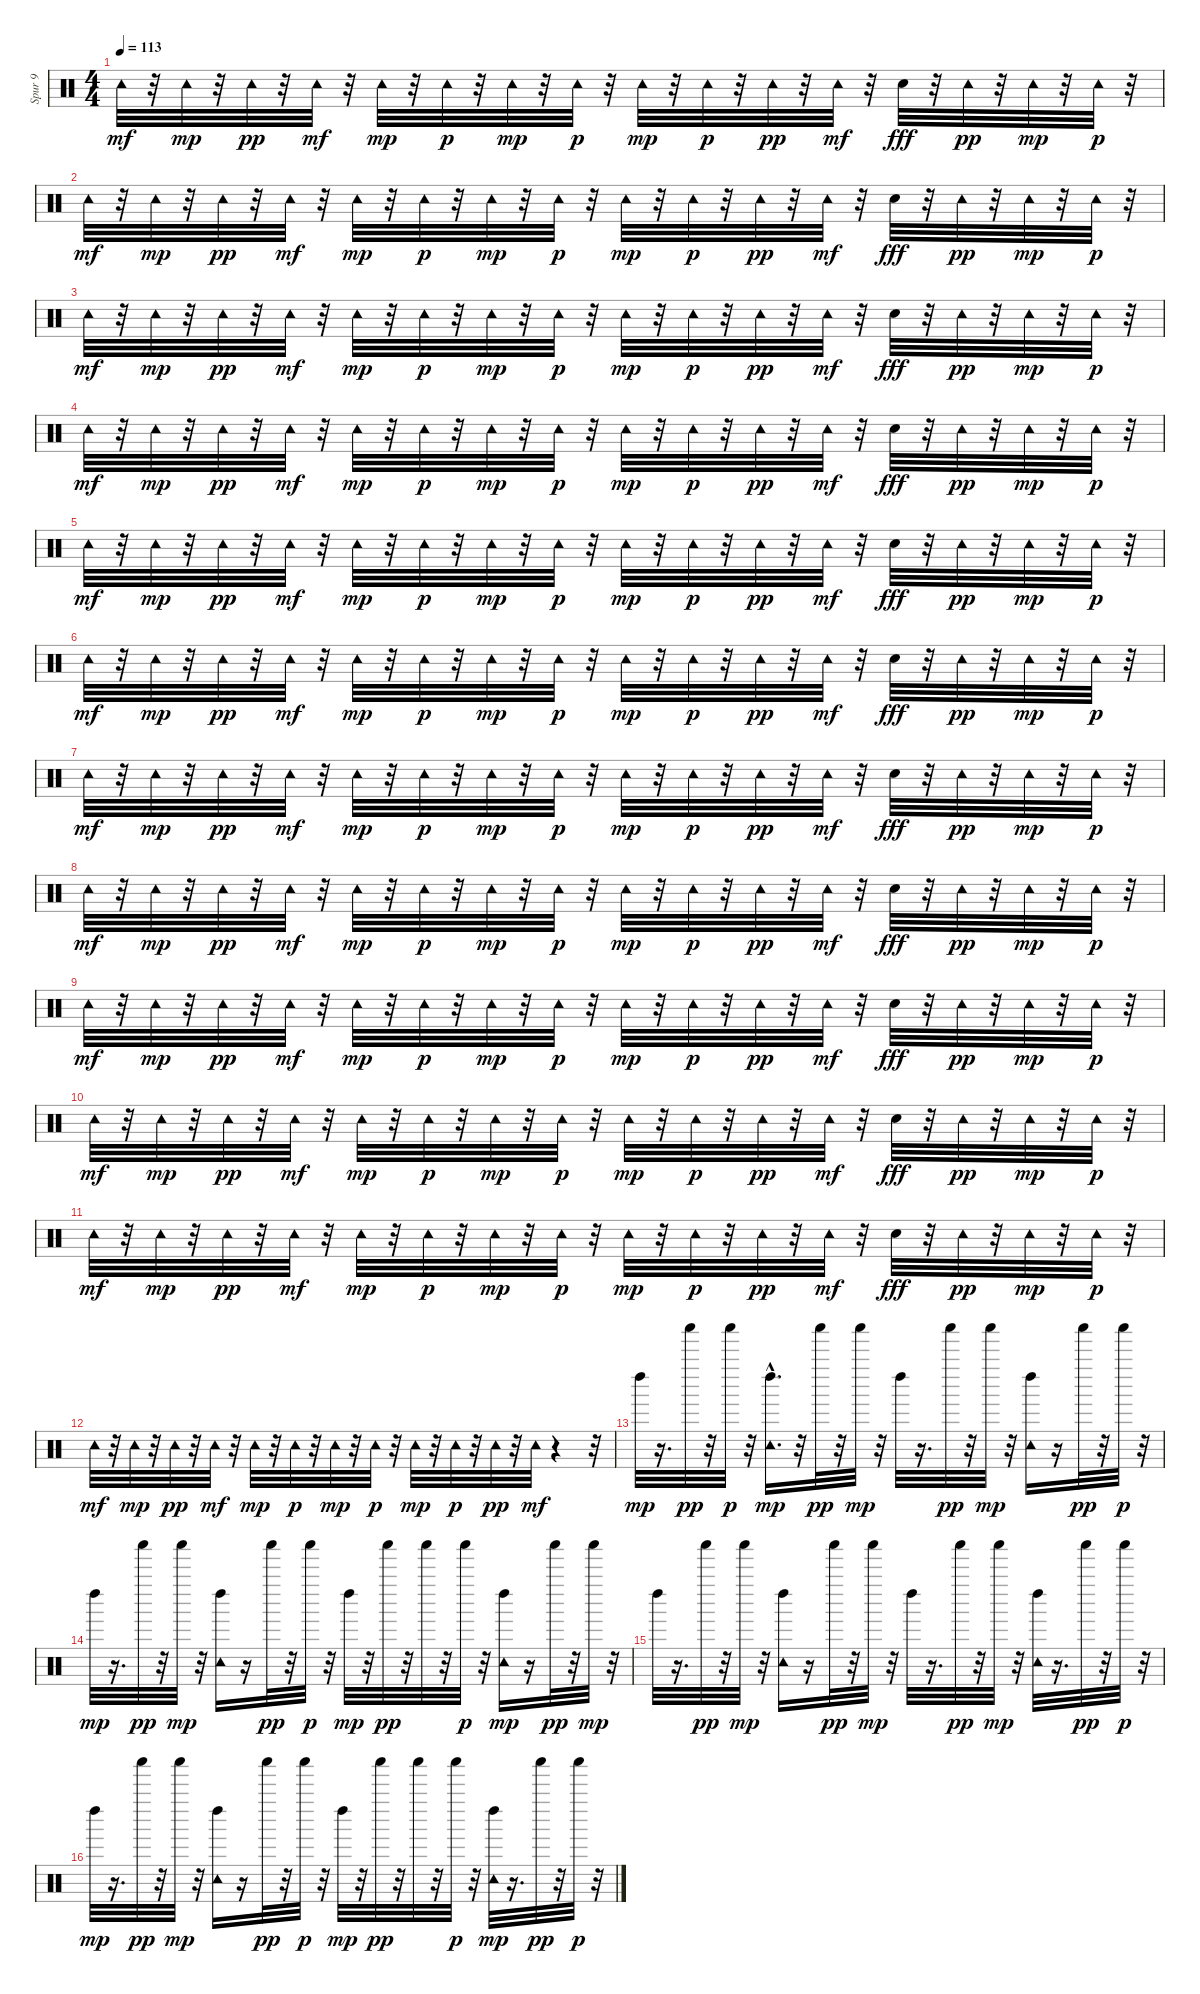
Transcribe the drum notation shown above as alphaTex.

\track ("Spur 9" "Spur 9") {instrument percussion}
\staff {score}
\articulation defaults
\ts (4 4)
\tempo 113
\clef neutral
\ks c "Tambourine (hit)".32{dy mf}
r.32 "Tambourine (hit)".32{dy mp} r.32 "Tambourine (hit)".32{dy pp} r.32 "Tambourine (hit)".32{dy mf} r.32 "Tambourine (hit)".32{dy mp} r.32 "Tambourine (hit)".32{dy p} r.32 "Tambourine (hit)".32{dy mp} r.32 "Tambourine (hit)".32{dy p} r.32 "Tambourine (hit)".32{dy mp} r.32 "Tambourine (hit)".32{dy p} r.32 "Tambourine (hit)".32{dy pp} r.32 "Tambourine (hit)".32{dy mf} r.32 "Hand Clap (hit)".32{dy fff} r.32 "Tambourine (hit)".32{dy pp} r.32 "Tambourine (hit)".32{dy mp} r.32 "Tambourine (hit)".32{dy p} r.32 |
"Tambourine (hit)".32{dy mf} r.32 "Tambourine (hit)".32{dy mp} r.32 "Tambourine (hit)".32{dy pp} r.32 "Tambourine (hit)".32{dy mf} r.32 "Tambourine (hit)".32{dy mp} r.32 "Tambourine (hit)".32{dy p} r.32 "Tambourine (hit)".32{dy mp} r.32 "Tambourine (hit)".32{dy p} r.32 "Tambourine (hit)".32{dy mp} r.32 "Tambourine (hit)".32{dy p} r.32 "Tambourine (hit)".32{dy pp} r.32 "Tambourine (hit)".32{dy mf} r.32 "Hand Clap (hit)".32{dy fff} r.32 "Tambourine (hit)".32{dy pp} r.32 "Tambourine (hit)".32{dy mp} r.32 "Tambourine (hit)".32{dy p} r.32 |
"Tambourine (hit)".32{dy mf} r.32 "Tambourine (hit)".32{dy mp} r.32 "Tambourine (hit)".32{dy pp} r.32 "Tambourine (hit)".32{dy mf} r.32 "Tambourine (hit)".32{dy mp} r.32 "Tambourine (hit)".32{dy p} r.32 "Tambourine (hit)".32{dy mp} r.32 "Tambourine (hit)".32{dy p} r.32 "Tambourine (hit)".32{dy mp} r.32 "Tambourine (hit)".32{dy p} r.32 "Tambourine (hit)".32{dy pp} r.32 "Tambourine (hit)".32{dy mf} r.32 "Hand Clap (hit)".32{dy fff} r.32 "Tambourine (hit)".32{dy pp} r.32 "Tambourine (hit)".32{dy mp} r.32 "Tambourine (hit)".32{dy p} r.32 |
"Tambourine (hit)".32{dy mf} r.32 "Tambourine (hit)".32{dy mp} r.32 "Tambourine (hit)".32{dy pp} r.32 "Tambourine (hit)".32{dy mf} r.32 "Tambourine (hit)".32{dy mp} r.32 "Tambourine (hit)".32{dy p} r.32 "Tambourine (hit)".32{dy mp} r.32 "Tambourine (hit)".32{dy p} r.32 "Tambourine (hit)".32{dy mp} r.32 "Tambourine (hit)".32{dy p} r.32 "Tambourine (hit)".32{dy pp} r.32 "Tambourine (hit)".32{dy mf} r.32 "Hand Clap (hit)".32{dy fff} r.32 "Tambourine (hit)".32{dy pp} r.32 "Tambourine (hit)".32{dy mp} r.32 "Tambourine (hit)".32{dy p} r.32 |
"Tambourine (hit)".32{dy mf} r.32 "Tambourine (hit)".32{dy mp} r.32 "Tambourine (hit)".32{dy pp} r.32 "Tambourine (hit)".32{dy mf} r.32 "Tambourine (hit)".32{dy mp} r.32 "Tambourine (hit)".32{dy p} r.32 "Tambourine (hit)".32{dy mp} r.32 "Tambourine (hit)".32{dy p} r.32 "Tambourine (hit)".32{dy mp} r.32 "Tambourine (hit)".32{dy p} r.32 "Tambourine (hit)".32{dy pp} r.32 "Tambourine (hit)".32{dy mf} r.32 "Hand Clap (hit)".32{dy fff} r.32 "Tambourine (hit)".32{dy pp} r.32 "Tambourine (hit)".32{dy mp} r.32 "Tambourine (hit)".32{dy p} r.32 |
"Tambourine (hit)".32{dy mf} r.32 "Tambourine (hit)".32{dy mp} r.32 "Tambourine (hit)".32{dy pp} r.32 "Tambourine (hit)".32{dy mf} r.32 "Tambourine (hit)".32{dy mp} r.32 "Tambourine (hit)".32{dy p} r.32 "Tambourine (hit)".32{dy mp} r.32 "Tambourine (hit)".32{dy p} r.32 "Tambourine (hit)".32{dy mp} r.32 "Tambourine (hit)".32{dy p} r.32 "Tambourine (hit)".32{dy pp} r.32 "Tambourine (hit)".32{dy mf} r.32 "Hand Clap (hit)".32{dy fff} r.32 "Tambourine (hit)".32{dy pp} r.32 "Tambourine (hit)".32{dy mp} r.32 "Tambourine (hit)".32{dy p} r.32 |
"Tambourine (hit)".32{dy mf} r.32 "Tambourine (hit)".32{dy mp} r.32 "Tambourine (hit)".32{dy pp} r.32 "Tambourine (hit)".32{dy mf} r.32 "Tambourine (hit)".32{dy mp} r.32 "Tambourine (hit)".32{dy p} r.32 "Tambourine (hit)".32{dy mp} r.32 "Tambourine (hit)".32{dy p} r.32 "Tambourine (hit)".32{dy mp} r.32 "Tambourine (hit)".32{dy p} r.32 "Tambourine (hit)".32{dy pp} r.32 "Tambourine (hit)".32{dy mf} r.32 "Hand Clap (hit)".32{dy fff} r.32 "Tambourine (hit)".32{dy pp} r.32 "Tambourine (hit)".32{dy mp} r.32 "Tambourine (hit)".32{dy p} r.32 |
"Tambourine (hit)".32{dy mf} r.32 "Tambourine (hit)".32{dy mp} r.32 "Tambourine (hit)".32{dy pp} r.32 "Tambourine (hit)".32{dy mf} r.32 "Tambourine (hit)".32{dy mp} r.32 "Tambourine (hit)".32{dy p} r.32 "Tambourine (hit)".32{dy mp} r.32 "Tambourine (hit)".32{dy p} r.32 "Tambourine (hit)".32{dy mp} r.32 "Tambourine (hit)".32{dy p} r.32 "Tambourine (hit)".32{dy pp} r.32 "Tambourine (hit)".32{dy mf} r.32 "Hand Clap (hit)".32{dy fff} r.32 "Tambourine (hit)".32{dy pp} r.32 "Tambourine (hit)".32{dy mp} r.32 "Tambourine (hit)".32{dy p} r.32 |
"Tambourine (hit)".32{dy mf} r.32 "Tambourine (hit)".32{dy mp} r.32 "Tambourine (hit)".32{dy pp} r.32 "Tambourine (hit)".32{dy mf} r.32 "Tambourine (hit)".32{dy mp} r.32 "Tambourine (hit)".32{dy p} r.32 "Tambourine (hit)".32{dy mp} r.32 "Tambourine (hit)".32{dy p} r.32 "Tambourine (hit)".32{dy mp} r.32 "Tambourine (hit)".32{dy p} r.32 "Tambourine (hit)".32{dy pp} r.32 "Tambourine (hit)".32{dy mf} r.32 "Hand Clap (hit)".32{dy fff} r.32 "Tambourine (hit)".32{dy pp} r.32 "Tambourine (hit)".32{dy mp} r.32 "Tambourine (hit)".32{dy p} r.32 |
"Tambourine (hit)".32{dy mf} r.32 "Tambourine (hit)".32{dy mp} r.32 "Tambourine (hit)".32{dy pp} r.32 "Tambourine (hit)".32{dy mf} r.32 "Tambourine (hit)".32{dy mp} r.32 "Tambourine (hit)".32{dy p} r.32 "Tambourine (hit)".32{dy mp} r.32 "Tambourine (hit)".32{dy p} r.32 "Tambourine (hit)".32{dy mp} r.32 "Tambourine (hit)".32{dy p} r.32 "Tambourine (hit)".32{dy pp} r.32 "Tambourine (hit)".32{dy mf} r.32 "Hand Clap (hit)".32{dy fff} r.32 "Tambourine (hit)".32{dy pp} r.32 "Tambourine (hit)".32{dy mp} r.32 "Tambourine (hit)".32{dy p} r.32 |
"Tambourine (hit)".32{dy mf} r.32 "Tambourine (hit)".32{dy mp} r.32 "Tambourine (hit)".32{dy pp} r.32 "Tambourine (hit)".32{dy mf} r.32 "Tambourine (hit)".32{dy mp} r.32 "Tambourine (hit)".32{dy p} r.32 "Tambourine (hit)".32{dy mp} r.32 "Tambourine (hit)".32{dy p} r.32 "Tambourine (hit)".32{dy mp} r.32 "Tambourine (hit)".32{dy p} r.32 "Tambourine (hit)".32{dy pp} r.32 "Tambourine (hit)".32{dy mf} r.32 "Hand Clap (hit)".32{dy fff} r.32 "Tambourine (hit)".32{dy pp} r.32 "Tambourine (hit)".32{dy mp} r.32 "Tambourine (hit)".32{dy p} r.32 |
"Tambourine (hit)".32{dy mf} r.32 "Tambourine (hit)".32{dy mp} r.32 "Tambourine (hit)".32{dy pp} r.32 "Tambourine (hit)".32{dy mf} r.32 "Tambourine (hit)".32{dy mp} r.32 "Tambourine (hit)".32{dy p} r.32 "Tambourine (hit)".32{dy mp} r.32 "Tambourine (hit)".32{dy p} r.32 "Tambourine (hit)".32{dy mp} r.32 "Tambourine (hit)".32{dy p} r.32 "Tambourine (hit)".32{dy pp} r.32 "Tambourine (hit)".32{dy mf} r.4 r.32 |
"Left Maraca (hit)".32{dy mp} r.16{d} "Shaker (hit)".32{dy pp} r.32 "Shaker (hit)".32{dy p} r.32 ("Tambourine (hit)"{hac} "Left Maraca (hit)").16{d dy mp} r.32 "Shaker (hit)".32{dy pp} r.32 "Shaker (hit)".32{dy mp} r.32 "Left Maraca (hit)".32 r.16{d} "Shaker (hit)".32{dy pp} r.32 "Shaker (hit)".32{dy mp} r.32 ("Tambourine (hit)" "Left Maraca (hit)").16 r.16 "Shaker (hit)".32{dy pp} r.32 "Shaker (hit)".32{dy p} r.32 |
"Left Maraca (hit)".32{dy mp} r.16{d} "Shaker (hit)".32{dy pp} r.32 "Shaker (hit)".32{dy mp} r.32 ("Tambourine (hit)" "Left Maraca (hit)").16 r.16 "Shaker (hit)".32{dy pp} r.32 "Shaker (hit)".32{dy p} r.32 "Left Maraca (hit)".32{dy mp} r.32 "Shaker (hit)".32{dy pp} r.32 "Shaker (hit)".32 r.32 "Shaker (hit)".32{dy p} r.32 ("Tambourine (hit)" "Left Maraca (hit)").16{dy mp} r.16 "Shaker (hit)".32{dy pp} r.32 "Shaker (hit)".32{dy mp} r.32 |
"Left Maraca (hit)".32 r.16{d} "Shaker (hit)".32{dy pp} r.32 "Shaker (hit)".32{dy mp} r.32 ("Tambourine (hit)" "Left Maraca (hit)").16 r.16 "Shaker (hit)".32{dy pp} r.32 "Shaker (hit)".32{dy mp} r.32 "Left Maraca (hit)".32 r.16{d} "Shaker (hit)".32{dy pp} r.32 "Shaker (hit)".32{dy mp} r.32 ("Tambourine (hit)" "Left Maraca (hit)").32 r.16{d} "Shaker (hit)".32{dy pp} r.32 "Shaker (hit)".32{dy p} r.32 |
"Left Maraca (hit)".32{dy mp} r.16{d} "Shaker (hit)".32{dy pp} r.32 "Shaker (hit)".32{dy mp} r.32 ("Tambourine (hit)" "Left Maraca (hit)").16 r.16 "Shaker (hit)".32{dy pp} r.32 "Shaker (hit)".32{dy p} r.32 "Left Maraca (hit)".32{dy mp} r.32 "Shaker (hit)".32{dy pp} r.32 "Shaker (hit)".32 r.32 "Shaker (hit)".32{dy p} r.32 ("Tambourine (hit)" "Left Maraca (hit)").32{dy mp} r.16{d} "Shaker (hit)".32{dy pp} r.32 "Shaker (hit)".32{dy p} r.32
